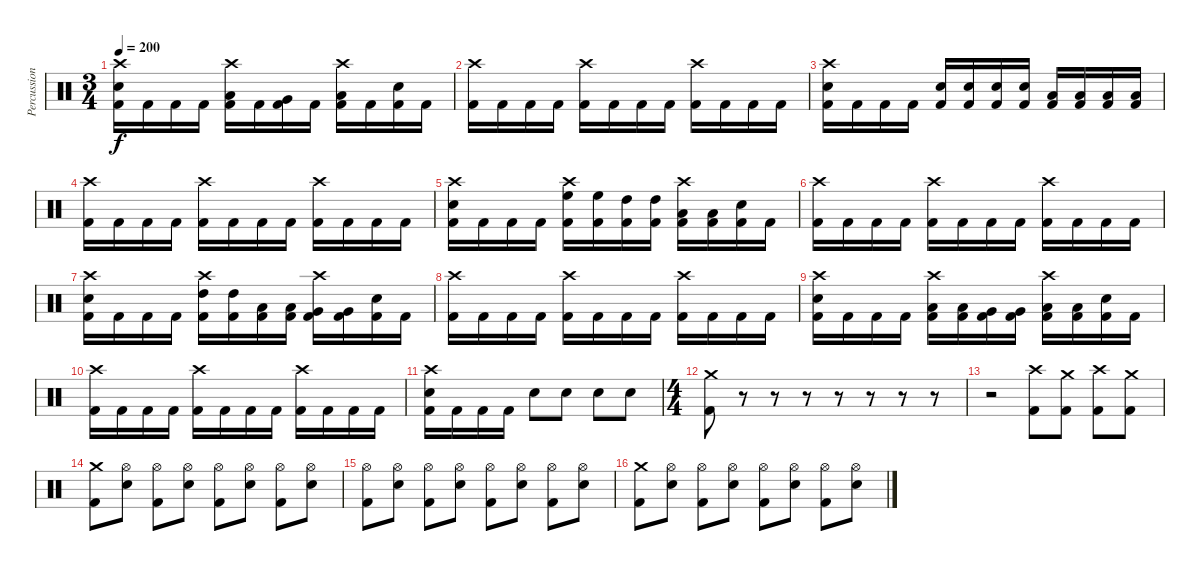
\track ("Percussion" "Percussion") {instrument percussion}
\staff
\articulation defaults
\ts (3 4)
\tempo 200
\clef neutral
\ks c
("Crash high (hit)" "Electric Snare (hit)" "Kick (hit) 2").16{dy f} "Kick (hit) 2".16 "Kick (hit) 2".16 "Kick (hit) 2".16 ("Crash high (hit)" "Low Tom (hit)" "Kick (hit) 2").16 "Kick (hit) 2".16 ("Very Low Tom (hit)" "Kick (hit) 2").16 "Kick (hit) 2".16 ("Crash high (hit)" "Low Floor Tom (hit)" "Kick (hit) 2").16 "Kick (hit) 2".16 ("Electric Snare (hit)" "Kick (hit) 2").16 "Kick (hit) 2".16 |
("Crash high (hit)" "Kick (hit) 2").16 "Kick (hit) 2".16 "Kick (hit) 2".16 "Kick (hit) 2".16 ("Crash high (hit)" "Kick (hit) 2").16 "Kick (hit) 2".16 "Kick (hit) 2".16 "Kick (hit) 2".16 ("Crash high (hit)" "Kick (hit) 2").16 "Kick (hit) 2".16 "Kick (hit) 2".16 "Kick (hit) 2".16 |
("Crash high (hit)" "Electric Snare (hit)" "Kick (hit) 2").16 "Kick (hit) 2".16 "Kick (hit) 2".16 "Kick (hit) 2".16 ("Electric Snare (hit)" "Kick (hit) 2").16 ("Electric Snare (hit)" "Kick (hit) 2").16 ("Electric Snare (hit)" "Kick (hit) 2").16 ("Electric Snare (hit)" "Kick (hit) 2").16 ("Low Tom (hit)" "Kick (hit) 2").16 ("Low Tom (hit)" "Kick (hit) 2").16 ("Low Tom (hit)" "Kick (hit) 2").16 ("Low Tom (hit)" "Kick (hit) 2").16 |
("Crash high (hit)" "Kick (hit) 2").16 "Kick (hit) 2".16 "Kick (hit) 2".16 "Kick (hit) 2".16 ("Crash high (hit)" "Kick (hit) 2").16 "Kick (hit) 2".16 "Kick (hit) 2".16 "Kick (hit) 2".16 ("Crash high (hit)" "Kick (hit) 2").16 "Kick (hit) 2".16 "Kick (hit) 2".16 "Kick (hit) 2".16 |
("Crash high (hit)" "Electric Snare (hit)" "Kick (hit) 2").16 "Kick (hit) 2".16 "Kick (hit) 2".16 "Kick (hit) 2".16 ("Crash high (hit)" "High Floor Tom (hit)" "Kick (hit) 2").16 ("High Floor Tom (hit)" "Kick (hit) 2").16 ("High Tom (hit)" "Kick (hit) 2").16 ("High Tom (hit)" "Kick (hit) 2").16 ("Crash high (hit)" "Low Tom (hit)" "Kick (hit) 2").16 ("Low Tom (hit)" "Kick (hit) 2").16 ("Electric Snare (hit)" "Kick (hit) 2").16 "Kick (hit) 2".16 |
("Crash high (hit)" "Kick (hit) 2").16 "Kick (hit) 2".16 "Kick (hit) 2".16 "Kick (hit) 2".16 ("Crash high (hit)" "Kick (hit) 2").16 "Kick (hit) 2".16 "Kick (hit) 2".16 "Kick (hit) 2".16 ("Crash high (hit)" "Kick (hit) 2").16 "Kick (hit) 2".16 "Kick (hit) 2".16 "Kick (hit) 2".16 |
("Crash high (hit)" "Electric Snare (hit)" "Kick (hit) 2").16 "Kick (hit) 2".16 "Kick (hit) 2".16 "Kick (hit) 2".16 ("Crash high (hit)" "High Tom (hit)" "Kick (hit) 2").16 ("High Tom (hit)" "Kick (hit) 2").16 ("Low Tom (hit)" "Kick (hit) 2").16 ("Low Tom (hit)" "Kick (hit) 2").16 ("Crash high (hit)" "Very Low Tom (hit)" "Kick (hit) 2").16 ("Very Low Tom (hit)" "Kick (hit) 2").16 ("Electric Snare (hit)" "Kick (hit) 2").16 "Kick (hit) 2".16 |
("Crash high (hit)" "Kick (hit) 2").16 "Kick (hit) 2".16 "Kick (hit) 2".16 "Kick (hit) 2".16 ("Crash high (hit)" "Kick (hit) 2").16 "Kick (hit) 2".16 "Kick (hit) 2".16 "Kick (hit) 2".16 ("Crash high (hit)" "Kick (hit) 2").16 "Kick (hit) 2".16 "Kick (hit) 2".16 "Kick (hit) 2".16 |
("Crash high (hit)" "Electric Snare (hit)" "Kick (hit) 2").16 "Kick (hit) 2".16 "Kick (hit) 2".16 "Kick (hit) 2".16 ("Crash high (hit)" "Low Tom (hit)" "Kick (hit) 2").16 ("Low Tom (hit)" "Kick (hit) 2").16 ("Very Low Tom (hit)" "Kick (hit) 2").16 ("Very Low Tom (hit)" "Kick (hit) 2").16 ("Crash high (hit)" "Low Floor Tom (hit)" "Kick (hit) 2").16 ("Low Floor Tom (hit)" "Kick (hit) 2").16 ("Electric Snare (hit)" "Kick (hit) 2").16 "Kick (hit) 2".16 |
("Crash high (hit)" "Kick (hit) 2").16 "Kick (hit) 2".16 "Kick (hit) 2".16 "Kick (hit) 2".16 ("Crash high (hit)" "Kick (hit) 2").16 "Kick (hit) 2".16 "Kick (hit) 2".16 "Kick (hit) 2".16 ("Crash high (hit)" "Kick (hit) 2").16 "Kick (hit) 2".16 "Kick (hit) 2".16 "Kick (hit) 2".16 |
("Crash high (hit)" "Electric Snare (hit)" "Kick (hit) 2").16 "Kick (hit) 2".16 "Kick (hit) 2".16 "Kick (hit) 2".16 "Electric Snare (hit)".8 "Electric Snare (hit)".8 "Electric Snare (hit)".8 "Electric Snare (hit)".8 |
\ts (4 4)
("Crash medium (hit)" "Kick (hit) 2").8 r.8 r.8 r.8 r.8 r.8 r.8 r.8 |
r.2 ("Crash high (hit)" "Kick (hit) 2").8 ("Crash medium (hit)" "Kick (hit) 2").8 ("Crash high (hit)" "Kick (hit) 2").8 ("Crash medium (hit)" "Kick (hit) 2").8 |
("Crash medium (hit)" "Kick (hit) 2").8 ("Hi-Hat (open)" "Electric Snare (hit)").8 ("Hi-Hat (open)" "Kick (hit) 2").8 ("Hi-Hat (open)" "Electric Snare (hit)").8 ("Hi-Hat (open)" "Kick (hit) 2").8 ("Hi-Hat (open)" "Electric Snare (hit)").8 ("Hi-Hat (open)" "Kick (hit) 2").8 ("Hi-Hat (open)" "Electric Snare (hit)").8 |
("Hi-Hat (open)" "Kick (hit) 2").8 ("Hi-Hat (open)" "Electric Snare (hit)").8 ("Hi-Hat (open)" "Kick (hit) 2").8 ("Hi-Hat (open)" "Electric Snare (hit)").8 ("Hi-Hat (open)" "Kick (hit) 2").8 ("Hi-Hat (open)" "Electric Snare (hit)").8 ("Hi-Hat (open)" "Kick (hit) 2").8 ("Hi-Hat (open)" "Electric Snare (hit)").8 |
("Crash medium (hit)" "Kick (hit) 2").8 ("Hi-Hat (open)" "Electric Snare (hit)").8 ("Hi-Hat (open)" "Kick (hit) 2").8 ("Hi-Hat (open)" "Electric Snare (hit)").8 ("Hi-Hat (open)" "Kick (hit) 2").8 ("Hi-Hat (open)" "Electric Snare (hit)").8 ("Hi-Hat (open)" "Kick (hit) 2").8 ("Hi-Hat (open)" "Electric Snare (hit)").8
